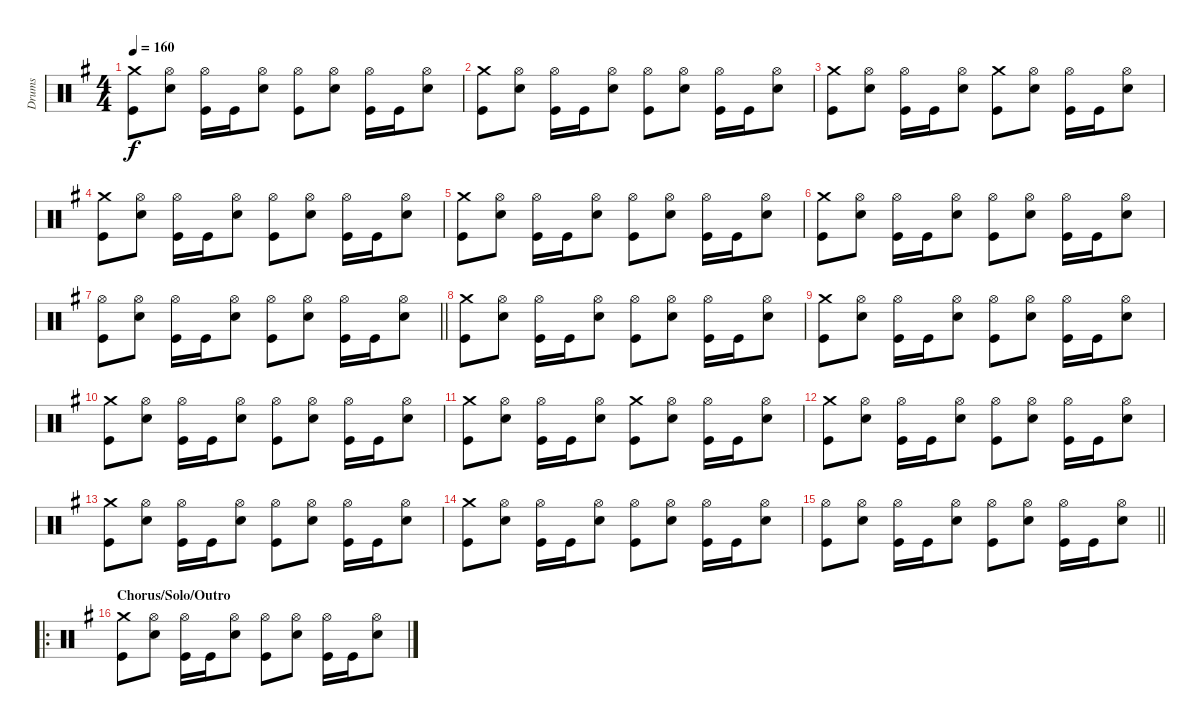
\track ("Drums" "Drums") {instrument percussion}
\staff {score}
\articulation defaults
\ts (4 4)
\tempo 160
\clef neutral
\ks eminor
("Crash medium (hit)" "Kick (hit)").8{dy f} ("Hi-Hat (open)" "Snare (hit) 2").8 ("Hi-Hat (open)" "Kick (hit)").16 "Kick (hit)".16 ("Hi-Hat (open)" "Snare (hit) 2").8 ("Hi-Hat (open)" "Kick (hit)").8 ("Hi-Hat (open)" "Snare (hit) 2").8 ("Hi-Hat (open)" "Kick (hit)").16 "Kick (hit)".16 ("Hi-Hat (open)" "Snare (hit) 2").8 |
("Crash medium (hit)" "Kick (hit)").8 ("Hi-Hat (open)" "Snare (hit) 2").8 ("Hi-Hat (open)" "Kick (hit)").16 "Kick (hit)".16 ("Hi-Hat (open)" "Snare (hit) 2").8 ("Hi-Hat (open)" "Kick (hit)").8 ("Hi-Hat (open)" "Snare (hit) 2").8 ("Hi-Hat (open)" "Kick (hit)").16 "Kick (hit)".16 ("Hi-Hat (open)" "Snare (hit) 2").8 |
("Crash medium (hit)" "Kick (hit)").8 ("Hi-Hat (open)" "Snare (hit) 2").8 ("Hi-Hat (open)" "Kick (hit)").16 "Kick (hit)".16 ("Hi-Hat (open)" "Snare (hit) 2").8 ("Crash medium (hit)" "Kick (hit)").8 ("Hi-Hat (open)" "Snare (hit) 2").8 ("Hi-Hat (open)" "Kick (hit)").16 "Kick (hit)".16 ("Hi-Hat (open)" "Snare (hit) 2").8 |
("Crash medium (hit)" "Kick (hit)").8 ("Hi-Hat (open)" "Snare (hit) 2").8 ("Hi-Hat (open)" "Kick (hit)").16 "Kick (hit)".16 ("Hi-Hat (open)" "Snare (hit) 2").8 ("Hi-Hat (open)" "Kick (hit)").8 ("Hi-Hat (open)" "Snare (hit) 2").8 ("Hi-Hat (open)" "Kick (hit)").16 "Kick (hit)".16 ("Hi-Hat (open)" "Snare (hit) 2").8 |
("Crash medium (hit)" "Kick (hit)").8 ("Hi-Hat (open)" "Snare (hit) 2").8 ("Hi-Hat (open)" "Kick (hit)").16 "Kick (hit)".16 ("Hi-Hat (open)" "Snare (hit) 2").8 ("Hi-Hat (open)" "Kick (hit)").8 ("Hi-Hat (open)" "Snare (hit) 2").8 ("Hi-Hat (open)" "Kick (hit)").16 "Kick (hit)".16 ("Hi-Hat (open)" "Snare (hit) 2").8 |
("Crash medium (hit)" "Kick (hit)").8 ("Hi-Hat (open)" "Snare (hit) 2").8 ("Hi-Hat (open)" "Kick (hit)").16 "Kick (hit)".16 ("Hi-Hat (open)" "Snare (hit) 2").8 ("Hi-Hat (open)" "Kick (hit)").8 ("Hi-Hat (open)" "Snare (hit) 2").8 ("Hi-Hat (open)" "Kick (hit)").16 "Kick (hit)".16 ("Hi-Hat (open)" "Snare (hit) 2").8 |
\barLineRight lightlight
("Hi-Hat (open)" "Kick (hit)").8 ("Hi-Hat (open)" "Snare (hit) 2").8 ("Hi-Hat (open)" "Kick (hit)").16 "Kick (hit)".16 ("Hi-Hat (open)" "Snare (hit) 2").8 ("Hi-Hat (open)" "Kick (hit)").8 ("Hi-Hat (open)" "Snare (hit) 2").8 ("Hi-Hat (open)" "Kick (hit)").16 "Kick (hit)".16 ("Hi-Hat (open)" "Snare (hit) 2").8 |
("Crash medium (hit)" "Kick (hit)").8 ("Hi-Hat (open)" "Snare (hit) 2").8 ("Hi-Hat (open)" "Kick (hit)").16 "Kick (hit)".16 ("Hi-Hat (open)" "Snare (hit) 2").8 ("Hi-Hat (open)" "Kick (hit)").8 ("Hi-Hat (open)" "Snare (hit) 2").8 ("Hi-Hat (open)" "Kick (hit)").16 "Kick (hit)".16 ("Hi-Hat (open)" "Snare (hit) 2").8 |
("Crash medium (hit)" "Kick (hit)").8 ("Hi-Hat (open)" "Snare (hit) 2").8 ("Hi-Hat (open)" "Kick (hit)").16 "Kick (hit)".16 ("Hi-Hat (open)" "Snare (hit) 2").8 ("Hi-Hat (open)" "Kick (hit)").8 ("Hi-Hat (open)" "Snare (hit) 2").8 ("Hi-Hat (open)" "Kick (hit)").16 "Kick (hit)".16 ("Hi-Hat (open)" "Snare (hit) 2").8 |
("Crash medium (hit)" "Kick (hit)").8 ("Hi-Hat (open)" "Snare (hit) 2").8 ("Hi-Hat (open)" "Kick (hit)").16 "Kick (hit)".16 ("Hi-Hat (open)" "Snare (hit) 2").8 ("Hi-Hat (open)" "Kick (hit)").8 ("Hi-Hat (open)" "Snare (hit) 2").8 ("Hi-Hat (open)" "Kick (hit)").16 "Kick (hit)".16 ("Hi-Hat (open)" "Snare (hit) 2").8 |
("Crash medium (hit)" "Kick (hit)").8 ("Hi-Hat (open)" "Snare (hit) 2").8 ("Hi-Hat (open)" "Kick (hit)").16 "Kick (hit)".16 ("Hi-Hat (open)" "Snare (hit) 2").8 ("Crash medium (hit)" "Kick (hit)").8 ("Hi-Hat (open)" "Snare (hit) 2").8 ("Hi-Hat (open)" "Kick (hit)").16 "Kick (hit)".16 ("Hi-Hat (open)" "Snare (hit) 2").8 |
("Crash medium (hit)" "Kick (hit)").8 ("Hi-Hat (open)" "Snare (hit) 2").8 ("Hi-Hat (open)" "Kick (hit)").16 "Kick (hit)".16 ("Hi-Hat (open)" "Snare (hit) 2").8 ("Hi-Hat (open)" "Kick (hit)").8 ("Hi-Hat (open)" "Snare (hit) 2").8 ("Hi-Hat (open)" "Kick (hit)").16 "Kick (hit)".16 ("Hi-Hat (open)" "Snare (hit) 2").8 |
("Crash medium (hit)" "Kick (hit)").8 ("Hi-Hat (open)" "Snare (hit) 2").8 ("Hi-Hat (open)" "Kick (hit)").16 "Kick (hit)".16 ("Hi-Hat (open)" "Snare (hit) 2").8 ("Hi-Hat (open)" "Kick (hit)").8 ("Hi-Hat (open)" "Snare (hit) 2").8 ("Hi-Hat (open)" "Kick (hit)").16 "Kick (hit)".16 ("Hi-Hat (open)" "Snare (hit) 2").8 |
("Crash medium (hit)" "Kick (hit)").8 ("Hi-Hat (open)" "Snare (hit) 2").8 ("Hi-Hat (open)" "Kick (hit)").16 "Kick (hit)".16 ("Hi-Hat (open)" "Snare (hit) 2").8 ("Hi-Hat (open)" "Kick (hit)").8 ("Hi-Hat (open)" "Snare (hit) 2").8 ("Hi-Hat (open)" "Kick (hit)").16 "Kick (hit)".16 ("Hi-Hat (open)" "Snare (hit) 2").8 |
\barLineRight lightlight
("Hi-Hat (open)" "Kick (hit)").8 ("Hi-Hat (open)" "Snare (hit) 2").8 ("Hi-Hat (open)" "Kick (hit)").16 "Kick (hit)".16 ("Hi-Hat (open)" "Snare (hit) 2").8 ("Hi-Hat (open)" "Kick (hit)").8 ("Hi-Hat (open)" "Snare (hit) 2").8 ("Hi-Hat (open)" "Kick (hit)").16 "Kick (hit)".16 ("Hi-Hat (open)" "Snare (hit) 2").8 |
\ro
\section ("" "Chorus/Solo/Outro")
("Crash medium (hit)" "Kick (hit)").8 ("Hi-Hat (open)" "Snare (hit) 2").8 ("Hi-Hat (open)" "Kick (hit)").16 "Kick (hit)".16 ("Hi-Hat (open)" "Snare (hit) 2").8 ("Hi-Hat (open)" "Kick (hit)").8 ("Hi-Hat (open)" "Snare (hit) 2").8 ("Hi-Hat (open)" "Kick (hit)").16 "Kick (hit)".16 ("Hi-Hat (open)" "Snare (hit) 2").8
